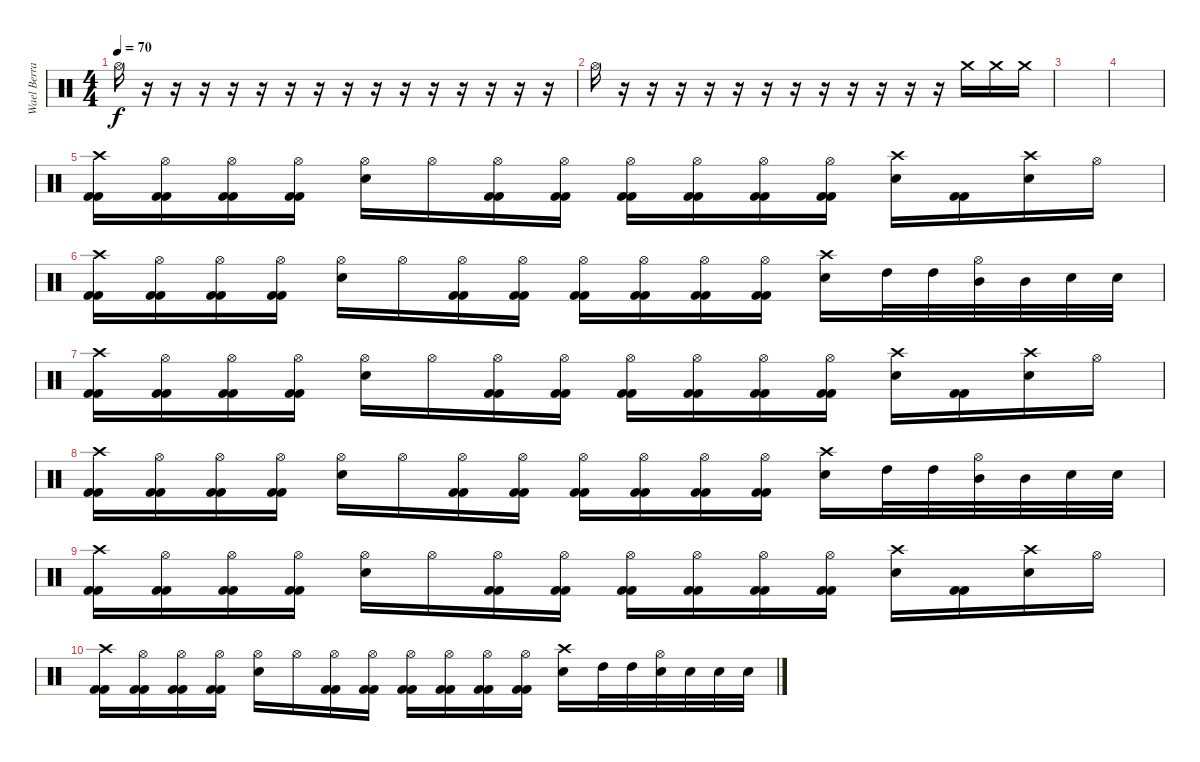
\track ("Wael Berrais" "Wael Berra") {instrument percussion}
\staff {score}
\articulation defaults
\ts (4 4)
\tempo 70
\clef neutral
\ks c "Hi-Hat (open)".16{dy f}
r.16 r.16 r.16 r.16 r.16 r.16 r.16 r.16 r.16 r.16 r.16 r.16 r.16 r.16 r.16 |
"Hi-Hat (open)".16 r.16 r.16 r.16 r.16 r.16 r.16 r.16 r.16 r.16 r.16 r.16 r.16 "Crash medium (hit)".16 "Crash medium (hit)".16 "Crash medium (hit)".16 |
|
|
("Crash high (hit)" "Kick (hit) 2" "Kick (hit) 2").16 ("Hi-Hat (open)" "Kick (hit) 2" "Kick (hit) 2").16 ("Hi-Hat (open)" "Kick (hit) 2" "Kick (hit) 2").16 ("Hi-Hat (open)" "Kick (hit) 2" "Kick (hit) 2").16 ("Hi-Hat (open)" "Electric Snare (hit)").16 "Hi-Hat (open)".16 ("Hi-Hat (open)" "Kick (hit) 2" "Kick (hit) 2").16 ("Hi-Hat (open)" "Kick (hit) 2" "Kick (hit) 2").16 ("Hi-Hat (open)" "Kick (hit) 2" "Kick (hit) 2").16 ("Hi-Hat (open)" "Kick (hit) 2" "Kick (hit) 2").16 ("Hi-Hat (open)" "Kick (hit) 2" "Kick (hit) 2").16 ("Hi-Hat (open)" "Kick (hit) 2" "Kick (hit) 2").16 ("Crash high (hit)" "Electric Snare (hit)").16 ("Kick (hit) 2" "Kick (hit) 2").16 ("Crash high (hit)" "Electric Snare (hit)").16 "Hi-Hat (open)".16 |
("Crash high (hit)" "Kick (hit) 2" "Kick (hit) 2").16 ("Hi-Hat (open)" "Kick (hit) 2" "Kick (hit) 2").16 ("Hi-Hat (open)" "Kick (hit) 2" "Kick (hit) 2").16 ("Hi-Hat (open)" "Kick (hit) 2" "Kick (hit) 2").16 ("Hi-Hat (open)" "Electric Snare (hit)").16 "Hi-Hat (open)".16 ("Hi-Hat (open)" "Kick (hit) 2" "Kick (hit) 2").16 ("Hi-Hat (open)" "Kick (hit) 2" "Kick (hit) 2").16 ("Hi-Hat (open)" "Kick (hit) 2" "Kick (hit) 2").16 ("Hi-Hat (open)" "Kick (hit) 2" "Kick (hit) 2").16 ("Hi-Hat (open)" "Kick (hit) 2" "Kick (hit) 2").16 ("Hi-Hat (open)" "Kick (hit) 2" "Kick (hit) 2").16 ("Crash high (hit)" "Electric Snare (hit)").16 "High Tom (hit)".32 "High Tom (hit)".32 ("Hi-Hat (open)" "Mid Tom (hit)").32 "Mid Tom (hit)".32 "Electric Snare (hit)".32 "Electric Snare (hit)".32 |
("Crash high (hit)" "Kick (hit) 2" "Kick (hit) 2").16 ("Hi-Hat (open)" "Kick (hit) 2" "Kick (hit) 2").16 ("Hi-Hat (open)" "Kick (hit) 2" "Kick (hit) 2").16 ("Hi-Hat (open)" "Kick (hit) 2" "Kick (hit) 2").16 ("Hi-Hat (open)" "Electric Snare (hit)").16 "Hi-Hat (open)".16 ("Hi-Hat (open)" "Kick (hit) 2" "Kick (hit) 2").16 ("Hi-Hat (open)" "Kick (hit) 2" "Kick (hit) 2").16 ("Hi-Hat (open)" "Kick (hit) 2" "Kick (hit) 2").16 ("Hi-Hat (open)" "Kick (hit) 2" "Kick (hit) 2").16 ("Hi-Hat (open)" "Kick (hit) 2" "Kick (hit) 2").16 ("Hi-Hat (open)" "Kick (hit) 2" "Kick (hit) 2").16 ("Crash high (hit)" "Electric Snare (hit)").16 ("Kick (hit) 2" "Kick (hit) 2").16 ("Crash high (hit)" "Electric Snare (hit)").16 "Hi-Hat (open)".16 |
("Crash high (hit)" "Kick (hit) 2" "Kick (hit) 2").16 ("Hi-Hat (open)" "Kick (hit) 2" "Kick (hit) 2").16 ("Hi-Hat (open)" "Kick (hit) 2" "Kick (hit) 2").16 ("Hi-Hat (open)" "Kick (hit) 2" "Kick (hit) 2").16 ("Hi-Hat (open)" "Electric Snare (hit)").16 "Hi-Hat (open)".16 ("Hi-Hat (open)" "Kick (hit) 2" "Kick (hit) 2").16 ("Hi-Hat (open)" "Kick (hit) 2" "Kick (hit) 2").16 ("Hi-Hat (open)" "Kick (hit) 2" "Kick (hit) 2").16 ("Hi-Hat (open)" "Kick (hit) 2" "Kick (hit) 2").16 ("Hi-Hat (open)" "Kick (hit) 2" "Kick (hit) 2").16 ("Hi-Hat (open)" "Kick (hit) 2" "Kick (hit) 2").16 ("Crash high (hit)" "Electric Snare (hit)").16 "High Tom (hit)".32 "High Tom (hit)".32 ("Hi-Hat (open)" "Mid Tom (hit)").32 "Mid Tom (hit)".32 "Electric Snare (hit)".32 "Electric Snare (hit)".32 |
("Crash high (hit)" "Kick (hit) 2" "Kick (hit) 2").16 ("Hi-Hat (open)" "Kick (hit) 2" "Kick (hit) 2").16 ("Hi-Hat (open)" "Kick (hit) 2" "Kick (hit) 2").16 ("Hi-Hat (open)" "Kick (hit) 2" "Kick (hit) 2").16 ("Hi-Hat (open)" "Electric Snare (hit)").16 "Hi-Hat (open)".16 ("Hi-Hat (open)" "Kick (hit) 2" "Kick (hit) 2").16 ("Hi-Hat (open)" "Kick (hit) 2" "Kick (hit) 2").16 ("Hi-Hat (open)" "Kick (hit) 2" "Kick (hit) 2").16 ("Hi-Hat (open)" "Kick (hit) 2" "Kick (hit) 2").16 ("Hi-Hat (open)" "Kick (hit) 2" "Kick (hit) 2").16 ("Hi-Hat (open)" "Kick (hit) 2" "Kick (hit) 2").16 ("Crash high (hit)" "Electric Snare (hit)").16 ("Kick (hit) 2" "Kick (hit) 2").16 ("Crash high (hit)" "Electric Snare (hit)").16 "Hi-Hat (open)".16 |
("Crash high (hit)" "Kick (hit) 2" "Kick (hit) 2").16 ("Hi-Hat (open)" "Kick (hit) 2" "Kick (hit) 2").16 ("Hi-Hat (open)" "Kick (hit) 2" "Kick (hit) 2").16 ("Hi-Hat (open)" "Kick (hit) 2" "Kick (hit) 2").16 ("Hi-Hat (open)" "Electric Snare (hit)").16 "Hi-Hat (open)".16 ("Hi-Hat (open)" "Kick (hit) 2" "Kick (hit) 2").16 ("Hi-Hat (open)" "Kick (hit) 2" "Kick (hit) 2").16 ("Hi-Hat (open)" "Kick (hit) 2" "Kick (hit) 2").16 ("Hi-Hat (open)" "Kick (hit) 2" "Kick (hit) 2").16 ("Hi-Hat (open)" "Kick (hit) 2" "Kick (hit) 2").16 ("Hi-Hat (open)" "Kick (hit) 2" "Kick (hit) 2").16 ("Crash high (hit)" "Electric Snare (hit)").16 "High Tom (hit)".32 "High Tom (hit)".32 ("Hi-Hat (open)" "Electric Snare (hit)").32 "Electric Snare (hit)".32 "Electric Snare (hit)".32 "Electric Snare (hit)".32
